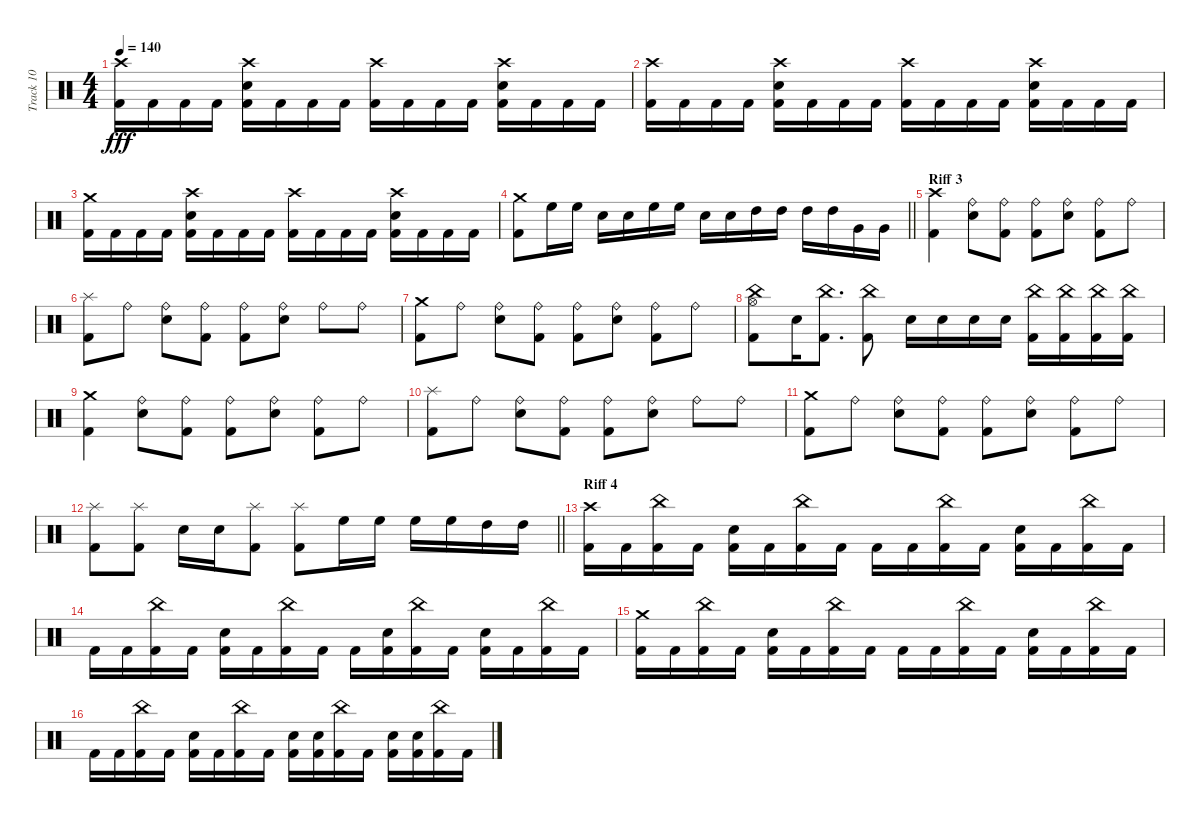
\track ("Track 10" "Track 10") {instrument percussion}
\staff {score}
\articulation defaults
\ts (4 4)
\tempo 140
\clef neutral
\ks c
("Crash high (hit)" "Kick (hit) 2").16{dy fff} "Kick (hit) 2".16 "Kick (hit) 2".16 "Kick (hit) 2".16 ("Crash high (hit)" "Snare (hit) 2" "Kick (hit) 2").16 "Kick (hit) 2".16 "Kick (hit) 2".16 "Kick (hit) 2".16 ("Kick (hit) 2" "Crash high (hit)").16 "Kick (hit) 2".16 "Kick (hit) 2".16 "Kick (hit) 2".16 ("Kick (hit) 2" "Crash high (hit)" "Snare (hit) 2").16 "Kick (hit) 2".16 "Kick (hit) 2".16 "Kick (hit) 2".16 |
("Crash high (hit)" "Kick (hit) 2").16 "Kick (hit) 2".16 "Kick (hit) 2".16 "Kick (hit) 2".16 ("Crash high (hit)" "Kick (hit) 2" "Snare (hit) 2").16 "Kick (hit) 2".16 "Kick (hit) 2".16 "Kick (hit) 2".16 ("Kick (hit) 2" "Crash high (hit)").16 "Kick (hit) 2".16 "Kick (hit) 2".16 "Kick (hit) 2".16 ("Snare (hit) 2" "Crash high (hit)" "Kick (hit) 2").16 "Kick (hit) 2".16 "Kick (hit) 2".16 "Kick (hit) 2".16 |
("Kick (hit) 2" "Crash medium (hit)").16 "Kick (hit) 2".16 "Kick (hit) 2".16 "Kick (hit) 2".16 ("Crash high (hit)" "Kick (hit) 2" "Snare (hit) 2").16 "Kick (hit) 2".16 "Kick (hit) 2".16 "Kick (hit) 2".16 ("Kick (hit) 2" "Crash high (hit)").16 "Kick (hit) 2".16 "Kick (hit) 2".16 "Kick (hit) 2".16 ("Snare (hit) 2" "Crash high (hit)" "Kick (hit) 2").16 "Kick (hit) 2".16 "Kick (hit) 2".16 "Kick (hit) 2".16 |
\barLineRight lightlight
("Kick (hit) 2" "Crash medium (hit)").8 "High Floor Tom (hit)".16 "High Floor Tom (hit)".16 "Snare (hit) 2".16 "Snare (hit) 2".16 "High Floor Tom (hit)".16 "High Floor Tom (hit)".16 "Snare (hit) 2".16 "Snare (hit) 2".16 "High Tom (hit)".16 "High Tom (hit)".16 "High Tom (hit)".16 "High Tom (hit)".16 "Very Low Tom (hit)".16 "Very Low Tom (hit)".16 |
\section ("" "Riff 3")
("Kick (hit) 2" "Crash high (hit)").4 ("Ride (bell)" "Snare (hit) 2").8 ("Ride (bell)" "Kick (hit) 2").8 ("Kick (hit) 2" "Ride (bell)").8 ("Ride (bell)" "Snare (hit) 2").8 ("Kick (hit) 2" "Ride (bell)").8 "Ride (bell)".8 |
("Kick (hit) 2" "Splash (hit)").8 "Ride (bell)".8 ("Ride (bell)" "Snare (hit) 2").8 ("Kick (hit) 2" "Ride (bell)").8 ("Kick (hit) 2" "Ride (bell)").8 ("Ride (bell)" "Snare (hit) 2").8 "Ride (bell)".8 "Ride (bell)".8 |
("Crash medium (hit)" "Kick (hit) 2").8 "Ride (bell)".8 ("Snare (hit) 2" "Ride (bell)").8 ("Ride (bell)" "Kick (hit) 2").8 ("Kick (hit) 2" "Ride (bell)").8 ("Ride (bell)" "Snare (hit) 2").8 ("Ride (bell)" "Kick (hit) 2").8 "Ride (bell)".8 |
("Hi-Hat (open)" "China (hit)" "Kick (hit) 2").8 "Snare (hit) 2".16 ("Kick (hit) 2" "China (hit)").8{d} ("China (hit)" "Kick (hit) 2").8 "Snare (hit) 2".16 "Snare (hit) 2".16 "Snare (hit) 2".16 "Snare (hit) 2".16 ("Kick (hit) 2" "China (hit)").16 ("China (hit)" "Kick (hit) 2").16 ("Kick (hit) 2" "China (hit)").16 ("China (hit)" "Kick (hit) 2").16 |
("Kick (hit) 2" "Crash medium (hit)").4 ("Ride (bell)" "Snare (hit) 2").8 ("Ride (bell)" "Kick (hit) 2").8 ("Kick (hit) 2" "Ride (bell)").8 ("Ride (bell)" "Snare (hit) 2").8 ("Kick (hit) 2" "Ride (bell)").8 "Ride (bell)".8 |
("Splash (hit)" "Kick (hit) 2").8 "Ride (bell)".8 ("Ride (bell)" "Snare (hit) 2").8 ("Ride (bell)" "Kick (hit) 2").8 ("Kick (hit) 2" "Ride (bell)").8 ("Snare (hit) 2" "Ride (bell)").8 "Ride (bell)".8 "Ride (bell)".8 |
("Kick (hit) 2" "Crash medium (hit)").8 "Ride (bell)".8 ("Snare (hit) 2" "Ride (bell)").8 ("Ride (bell)" "Kick (hit) 2").8 ("Kick (hit) 2" "Ride (bell)").8 ("Ride (bell)" "Snare (hit) 2").8 ("Ride (bell)" "Kick (hit) 2").8 "Ride (bell)".8 |
\barLineRight lightlight
("Splash (hit)" "Kick (hit) 2").8 ("Splash (hit)" "Kick (hit) 2").8 "Snare (hit) 2".16 "Snare (hit) 2".16 ("Kick (hit) 2" "Splash (hit)").8 ("Kick (hit) 2" "Splash (hit)").8 "High Floor Tom (hit)".16 "High Floor Tom (hit)".16 "High Floor Tom (hit)".16 "High Floor Tom (hit)".16 "High Tom (hit)".16 "High Tom (hit)".16 |
\section ("" "Riff 4")
("Crash high (hit)" "Kick (hit) 2").16 "Kick (hit) 2".16 ("Kick (hit) 2" "China (hit)").16 "Kick (hit) 2".16 ("Snare (hit) 2" "Kick (hit) 2").16 "Kick (hit) 2".16 ("China (hit)" "Kick (hit) 2").16 "Kick (hit) 2".16 "Kick (hit) 2".16 "Kick (hit) 2".16 ("China (hit)" "Kick (hit) 2").16 "Kick (hit) 2".16 ("Kick (hit) 2" "Snare (hit) 2").16 "Kick (hit) 2".16 ("Kick (hit) 2" "China (hit)").16 "Kick (hit) 2".16 |
"Kick (hit) 2".16 "Kick (hit) 2".16 ("China (hit)" "Kick (hit) 2").16 "Kick (hit) 2".16 ("Snare (hit) 2" "Kick (hit) 2").16 "Kick (hit) 2".16 ("Kick (hit) 2" "China (hit)").16 "Kick (hit) 2".16 "Kick (hit) 2".16 ("Kick (hit) 2" "Snare (hit) 2").16 ("Kick (hit) 2" "China (hit)").16 "Kick (hit) 2".16 ("Snare (hit) 2" "Kick (hit) 2").16 "Kick (hit) 2".16 ("China (hit)" "Kick (hit) 2").16 "Kick (hit) 2".16 |
("Crash medium (hit)" "Kick (hit) 2").16 "Kick (hit) 2".16 ("China (hit)" "Kick (hit) 2").16 "Kick (hit) 2".16 ("Snare (hit) 2" "Kick (hit) 2").16 "Kick (hit) 2".16 ("Kick (hit) 2" "China (hit)").16 "Kick (hit) 2".16 "Kick (hit) 2".16 "Kick (hit) 2".16 ("Kick (hit) 2" "China (hit)").16 "Kick (hit) 2".16 ("Kick (hit) 2" "Snare (hit) 2").16 "Kick (hit) 2".16 ("China (hit)" "Kick (hit) 2").16 "Kick (hit) 2".16 |
"Kick (hit) 2".16 "Kick (hit) 2".16 ("China (hit)" "Kick (hit) 2").16 "Kick (hit) 2".16 ("Kick (hit) 2" "Snare (hit) 2").16 "Kick (hit) 2".16 ("Kick (hit) 2" "China (hit)").16 "Kick (hit) 2".16 ("Kick (hit) 2" "Snare (hit) 2").16 ("Kick (hit) 2" "Snare (hit) 2").16 ("China (hit)" "Kick (hit) 2").16 "Kick (hit) 2".16 ("Kick (hit) 2" "Snare (hit) 2").16 ("Snare (hit) 2" "Kick (hit) 2").16 ("Kick (hit) 2" "China (hit)").16 "Kick (hit) 2".16
